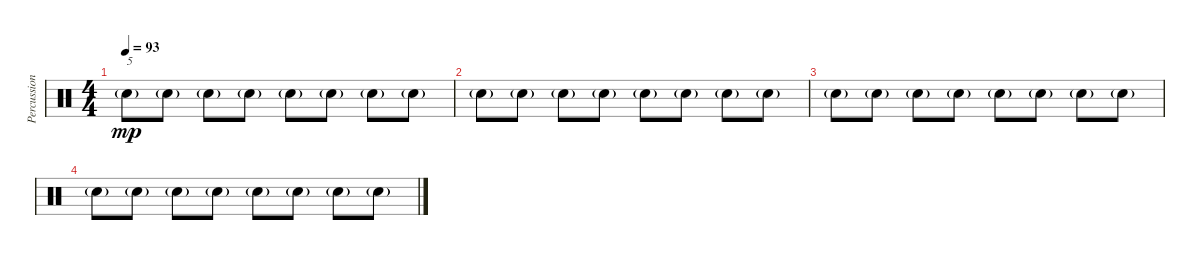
\track ("Percussion" "Percussion") {instrument percussion}
\staff {score}
\articulation defaults
\ts (4 4)
\tempo 93
\clef neutral
\ks c "Hand Clap (hit)"{g}.8{txt "5" dy mp} "Hand Clap (hit)"{g}.8 "Hand Clap (hit)"{g}.8 "Hand Clap (hit)"{g}.8 "Hand Clap (hit)"{g}.8 "Hand Clap (hit)"{g}.8 "Hand Clap (hit)"{g}.8 "Hand Clap (hit)"{g}.8
|
"Hand Clap (hit)"{g}.8 "Hand Clap (hit)"{g}.8 "Hand Clap (hit)"{g}.8 "Hand Clap (hit)"{g}.8 "Hand Clap (hit)"{g}.8 "Hand Clap (hit)"{g}.8 "Hand Clap (hit)"{g}.8 "Hand Clap (hit)"{g}.8 |
"Hand Clap (hit)"{g}.8 "Hand Clap (hit)"{g}.8 "Hand Clap (hit)"{g}.8 "Hand Clap (hit)"{g}.8 "Hand Clap (hit)"{g}.8 "Hand Clap (hit)"{g}.8 "Hand Clap (hit)"{g}.8 "Hand Clap (hit)"{g}.8 |
"Hand Clap (hit)"{g}.8 "Hand Clap (hit)"{g}.8 "Hand Clap (hit)"{g}.8 "Hand Clap (hit)"{g}.8 "Hand Clap (hit)"{g}.8 "Hand Clap (hit)"{g}.8 "Hand Clap (hit)"{g}.8 "Hand Clap (hit)"{g}.8
